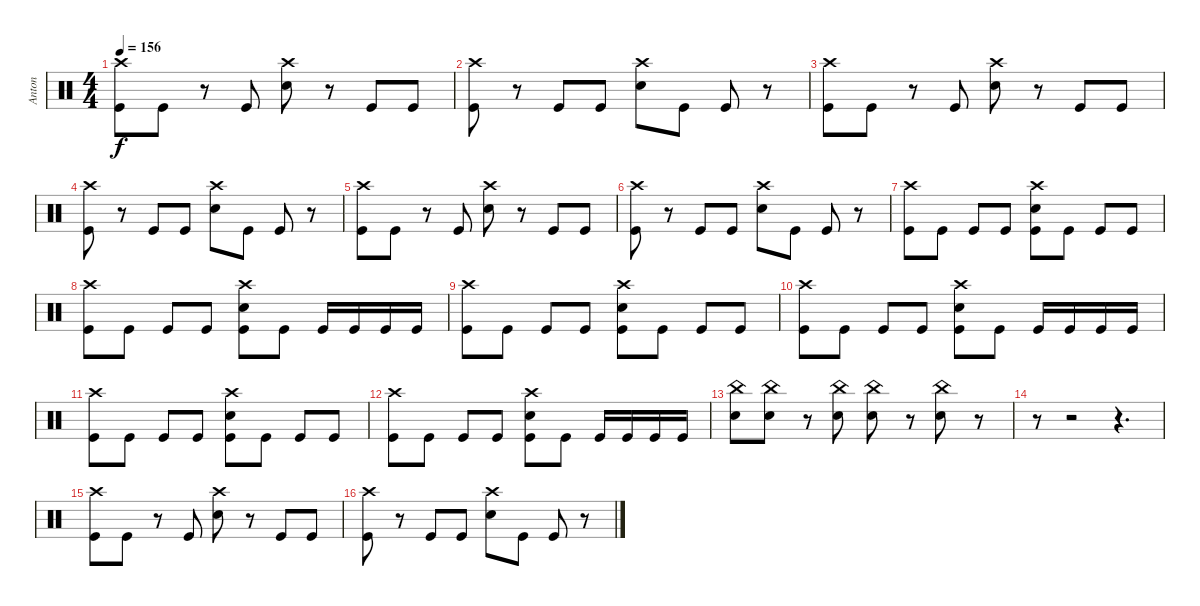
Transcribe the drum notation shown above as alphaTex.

\track ("Anton " "Anton ") {instrument percussion}
\staff
\articulation defaults
\ts (4 4)
\tempo 156
\clef neutral
\ks c
("Crash high (hit)" "Kick (hit)").8{dy f} "Kick (hit)".8 r.8 "Kick (hit)".8 ("Crash high (hit)" "Snare (hit) 2").8 r.8 "Kick (hit)".8 "Kick (hit)".8 |
("Crash high (hit)" "Kick (hit)").8 r.8 "Kick (hit)".8 "Kick (hit)".8 ("Crash high (hit)" "Snare (hit) 2").8 "Kick (hit)".8 "Kick (hit)".8 r.8 |
("Crash high (hit)" "Kick (hit)").8 "Kick (hit)".8 r.8 "Kick (hit)".8 ("Crash high (hit)" "Snare (hit) 2").8 r.8 "Kick (hit)".8 "Kick (hit)".8 |
("Crash high (hit)" "Kick (hit)").8 r.8 "Kick (hit)".8 "Kick (hit)".8 ("Crash high (hit)" "Snare (hit) 2").8 "Kick (hit)".8 "Kick (hit)".8 r.8 |
("Crash high (hit)" "Kick (hit)").8 "Kick (hit)".8 r.8 "Kick (hit)".8 ("Crash high (hit)" "Snare (hit) 2").8 r.8 "Kick (hit)".8 "Kick (hit)".8 |
("Crash high (hit)" "Kick (hit)").8 r.8 "Kick (hit)".8 "Kick (hit)".8 ("Crash high (hit)" "Snare (hit) 2").8 "Kick (hit)".8 "Kick (hit)".8 r.8 |
("Crash high (hit)" "Kick (hit)").8 "Kick (hit)".8 "Kick (hit)".8 "Kick (hit)".8 ("Crash high (hit)" "Snare (hit) 2" "Kick (hit)").8 "Kick (hit)".8 "Kick (hit)".8 "Kick (hit)".8 |
("Crash high (hit)" "Kick (hit)").8 "Kick (hit)".8 "Kick (hit)".8 "Kick (hit)".8 ("Crash high (hit)" "Snare (hit) 2" "Kick (hit)").8 "Kick (hit)".8 "Kick (hit)".16 "Kick (hit)".16 "Kick (hit)".16 "Kick (hit)".16 |
("Crash high (hit)" "Kick (hit)").8 "Kick (hit)".8 "Kick (hit)".8 "Kick (hit)".8 ("Crash high (hit)" "Snare (hit) 2" "Kick (hit)").8 "Kick (hit)".8 "Kick (hit)".8 "Kick (hit)".8 |
("Crash high (hit)" "Kick (hit)").8 "Kick (hit)".8 "Kick (hit)".8 "Kick (hit)".8 ("Crash high (hit)" "Snare (hit) 2" "Kick (hit)").8 "Kick (hit)".8 "Kick (hit)".16 "Kick (hit)".16 "Kick (hit)".16 "Kick (hit)".16 |
("Crash high (hit)" "Kick (hit)").8 "Kick (hit)".8 "Kick (hit)".8 "Kick (hit)".8 ("Crash high (hit)" "Snare (hit) 2" "Kick (hit)").8 "Kick (hit)".8 "Kick (hit)".8 "Kick (hit)".8 |
("Crash high (hit)" "Kick (hit)").8 "Kick (hit)".8 "Kick (hit)".8 "Kick (hit)".8 ("Crash high (hit)" "Snare (hit) 2" "Kick (hit)").8 "Kick (hit)".8 "Kick (hit)".16 "Kick (hit)".16 "Kick (hit)".16 "Kick (hit)".16 |
("China (hit)" "Snare (hit) 2").8 ("China (hit)" "Snare (hit) 2").8 r.8 ("China (hit)" "Snare (hit) 2").8 ("China (hit)" "Snare (hit) 2").8 r.8 ("China (hit)" "Snare (hit) 2").8 r.8 |
r.8 r.2 r.4{d} |
("Crash high (hit)" "Kick (hit)").8 "Kick (hit)".8 r.8 "Kick (hit)".8 ("Crash high (hit)" "Snare (hit) 2").8 r.8 "Kick (hit)".8 "Kick (hit)".8 |
("Crash high (hit)" "Kick (hit)").8 r.8 "Kick (hit)".8 "Kick (hit)".8 ("Crash high (hit)" "Snare (hit) 2").8 "Kick (hit)".8 "Kick (hit)".8 r.8
